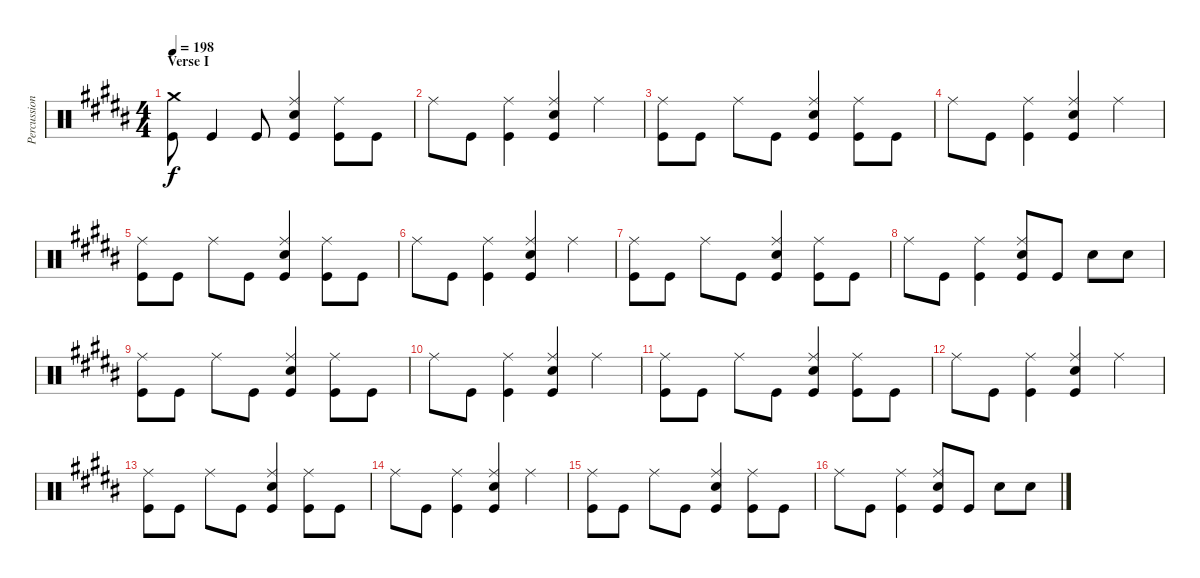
\track ("Percussion" "Percussion") {instrument percussion}
\staff {score}
\articulation defaults
\ts (4 4)
\section ("" "Verse I")
\tempo 198
\clef neutral
\ks b
("Crash medium (hit)" "Kick (hit)").8{dy f} "Kick (hit)".4 "Kick (hit)".8 ("Ride (middle)" "Electric Snare (hit)" "Kick (hit)").4 ("Ride (middle)" "Kick (hit)").8 "Kick (hit)".8 |
"Ride (middle)".8 "Kick (hit)".8 ("Ride (middle)" "Kick (hit)").4 ("Ride (middle)" "Electric Snare (hit)" "Kick (hit)").4 "Ride (middle)".4 |
("Ride (middle)" "Kick (hit)").8 "Kick (hit)".8 "Ride (middle)".8 "Kick (hit)".8 ("Ride (middle)" "Electric Snare (hit)" "Kick (hit)").4 ("Ride (middle)" "Kick (hit)").8 "Kick (hit)".8 |
"Ride (middle)".8 "Kick (hit)".8 ("Ride (middle)" "Kick (hit)").4 ("Ride (middle)" "Electric Snare (hit)" "Kick (hit)").4 "Ride (middle)".4 |
("Ride (middle)" "Kick (hit)").8 "Kick (hit)".8 "Ride (middle)".8 "Kick (hit)".8 ("Ride (middle)" "Electric Snare (hit)" "Kick (hit)").4 ("Ride (middle)" "Kick (hit)").8 "Kick (hit)".8 |
"Ride (middle)".8 "Kick (hit)".8 ("Ride (middle)" "Kick (hit)").4 ("Ride (middle)" "Electric Snare (hit)" "Kick (hit)").4 "Ride (middle)".4 |
("Ride (middle)" "Kick (hit)").8 "Kick (hit)".8 "Ride (middle)".8 "Kick (hit)".8 ("Ride (middle)" "Electric Snare (hit)" "Kick (hit)").4 ("Ride (middle)" "Kick (hit)").8 "Kick (hit)".8 |
"Ride (middle)".8 "Kick (hit)".8 ("Ride (middle)" "Kick (hit)").4 ("Ride (middle)" "Electric Snare (hit)" "Kick (hit)").8 "Kick (hit)".8 "Electric Snare (hit)".8 "Electric Snare (hit)".8 |
("Ride (middle)" "Kick (hit)").8 "Kick (hit)".8 "Ride (middle)".8 "Kick (hit)".8 ("Ride (middle)" "Electric Snare (hit)" "Kick (hit)").4 ("Ride (middle)" "Kick (hit)").8 "Kick (hit)".8 |
"Ride (middle)".8 "Kick (hit)".8 ("Ride (middle)" "Kick (hit)").4 ("Ride (middle)" "Electric Snare (hit)" "Kick (hit)").4 "Ride (middle)".4 |
("Ride (middle)" "Kick (hit)").8 "Kick (hit)".8 "Ride (middle)".8 "Kick (hit)".8 ("Ride (middle)" "Electric Snare (hit)" "Kick (hit)").4 ("Ride (middle)" "Kick (hit)").8 "Kick (hit)".8 |
"Ride (middle)".8 "Kick (hit)".8 ("Ride (middle)" "Kick (hit)").4 ("Ride (middle)" "Electric Snare (hit)" "Kick (hit)").4 "Ride (middle)".4 |
("Ride (middle)" "Kick (hit)").8 "Kick (hit)".8 "Ride (middle)".8 "Kick (hit)".8 ("Ride (middle)" "Electric Snare (hit)" "Kick (hit)").4 ("Ride (middle)" "Kick (hit)").8 "Kick (hit)".8 |
"Ride (middle)".8 "Kick (hit)".8 ("Ride (middle)" "Kick (hit)").4 ("Ride (middle)" "Electric Snare (hit)" "Kick (hit)").4 "Ride (middle)".4 |
("Ride (middle)" "Kick (hit)").8 "Kick (hit)".8 "Ride (middle)".8 "Kick (hit)".8 ("Ride (middle)" "Electric Snare (hit)" "Kick (hit)").4 ("Ride (middle)" "Kick (hit)").8 "Kick (hit)".8 |
"Ride (middle)".8 "Kick (hit)".8 ("Ride (middle)" "Kick (hit)").4 ("Ride (middle)" "Electric Snare (hit)" "Kick (hit)").8 "Kick (hit)".8 "Electric Snare (hit)".8 "Electric Snare (hit)".8
